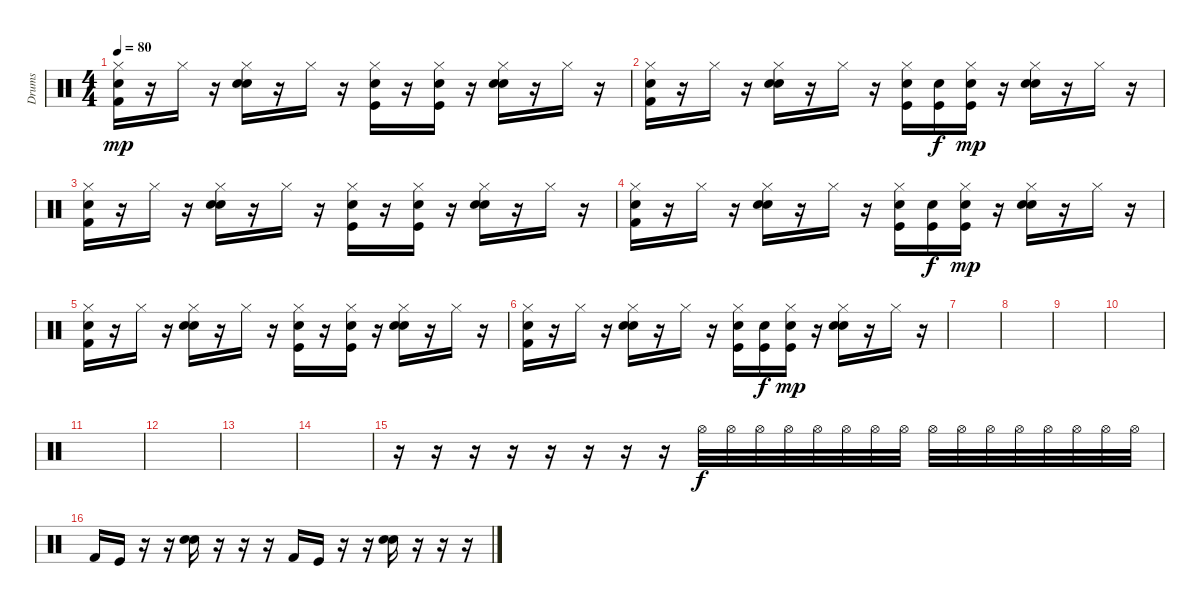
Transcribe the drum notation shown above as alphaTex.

\track ("Drums" "Drums") {instrument percussion}
\staff {score}
\articulation defaults
\ts (4 4)
\tempo 80
\clef neutral
\ks c
("Hi-Hat (closed)" "Kick (hit) 2" "Snare (hit) 2").16{dy mp} r.16 "Hi-Hat (closed)".16 r.16 ("Hi-Hat (closed)" "Electric Snare (hit)" "Electric Snare (hit)").16 r.16 "Hi-Hat (closed)".16 r.16 ("Hi-Hat (closed)" "Kick (hit)" "Snare (hit) 2").16 r.16 ("Hi-Hat (closed)" "Kick (hit)" "Snare (hit) 2").16 r.16 ("Hi-Hat (closed)" "Electric Snare (hit)" "Electric Snare (hit)").16 r.16 "Hi-Hat (closed)".16 r.16 |
("Hi-Hat (closed)" "Kick (hit) 2" "Snare (hit) 2").16 r.16 "Hi-Hat (closed)".16 r.16 ("Hi-Hat (closed)" "Electric Snare (hit)" "Electric Snare (hit)").16 r.16 "Hi-Hat (closed)".16 r.16 ("Hi-Hat (closed)" "Kick (hit)" "Snare (hit) 2").16 ("Kick (hit)" "Snare (hit) 2").16{dy f} ("Hi-Hat (closed)" "Kick (hit)" "Snare (hit) 2").16{dy mp} r.16 ("Hi-Hat (closed)" "Electric Snare (hit)" "Electric Snare (hit)").16 r.16 "Hi-Hat (closed)".16 r.16 |
("Hi-Hat (closed)" "Kick (hit) 2" "Snare (hit) 2").16 r.16 "Hi-Hat (closed)".16 r.16 ("Hi-Hat (closed)" "Electric Snare (hit)" "Electric Snare (hit)").16 r.16 "Hi-Hat (closed)".16 r.16 ("Hi-Hat (closed)" "Kick (hit)" "Snare (hit) 2").16 r.16 ("Hi-Hat (closed)" "Kick (hit)" "Snare (hit) 2").16 r.16 ("Hi-Hat (closed)" "Electric Snare (hit)" "Electric Snare (hit)").16 r.16 "Hi-Hat (closed)".16 r.16 |
("Hi-Hat (closed)" "Kick (hit) 2" "Snare (hit) 2").16 r.16 "Hi-Hat (closed)".16 r.16 ("Hi-Hat (closed)" "Electric Snare (hit)" "Electric Snare (hit)").16 r.16 "Hi-Hat (closed)".16 r.16 ("Hi-Hat (closed)" "Kick (hit)" "Snare (hit) 2").16 ("Kick (hit)" "Snare (hit) 2").16{dy f} ("Hi-Hat (closed)" "Kick (hit)" "Snare (hit) 2").16{dy mp} r.16 ("Hi-Hat (closed)" "Electric Snare (hit)" "Electric Snare (hit)").16 r.16 "Hi-Hat (closed)".16 r.16 |
("Hi-Hat (closed)" "Kick (hit) 2" "Snare (hit) 2").16 r.16 "Hi-Hat (closed)".16 r.16 ("Hi-Hat (closed)" "Electric Snare (hit)" "Electric Snare (hit)").16 r.16 "Hi-Hat (closed)".16 r.16 ("Hi-Hat (closed)" "Kick (hit)" "Snare (hit) 2").16 r.16 ("Hi-Hat (closed)" "Kick (hit)" "Snare (hit) 2").16 r.16 ("Hi-Hat (closed)" "Electric Snare (hit)" "Electric Snare (hit)").16 r.16 "Hi-Hat (closed)".16 r.16 |
("Hi-Hat (closed)" "Kick (hit) 2" "Snare (hit) 2").16 r.16 "Hi-Hat (closed)".16 r.16 ("Hi-Hat (closed)" "Electric Snare (hit)" "Electric Snare (hit)").16 r.16 "Hi-Hat (closed)".16 r.16 ("Hi-Hat (closed)" "Kick (hit)" "Snare (hit) 2").16 ("Kick (hit)" "Snare (hit) 2").16{dy f} ("Hi-Hat (closed)" "Kick (hit)" "Snare (hit) 2").16{dy mp} r.16 ("Hi-Hat (closed)" "Electric Snare (hit)" "Electric Snare (hit)").16 r.16 "Hi-Hat (closed)".16 r.16 |
|
|
|
|
|
|
|
|
r.16 r.16 r.16 r.16 r.16 r.16 r.16 r.16 "Hi-Hat (open)".32{dy f} "Hi-Hat (open)".32 "Hi-Hat (open)".32 "Hi-Hat (open)".32 "Hi-Hat (open)".32 "Hi-Hat (open)".32 "Hi-Hat (open)".32 "Hi-Hat (open)".32 "Hi-Hat (open)".32 "Hi-Hat (open)".32 "Hi-Hat (open)".32 "Hi-Hat (open)".32 "Hi-Hat (open)".32 "Hi-Hat (open)".32 "Hi-Hat (open)".32 "Hi-Hat (open)".32 |
"Kick (hit) 2".16 "Kick (hit)".16 r.16 r.16 ("Electric Snare (hit)" "Electric Snare (hit)").16 r.16 r.16 r.16 "Kick (hit) 2".16 "Kick (hit)".16 r.16 r.16 ("Electric Snare (hit)" "Electric Snare (hit)").16 r.16 r.16 r.16
